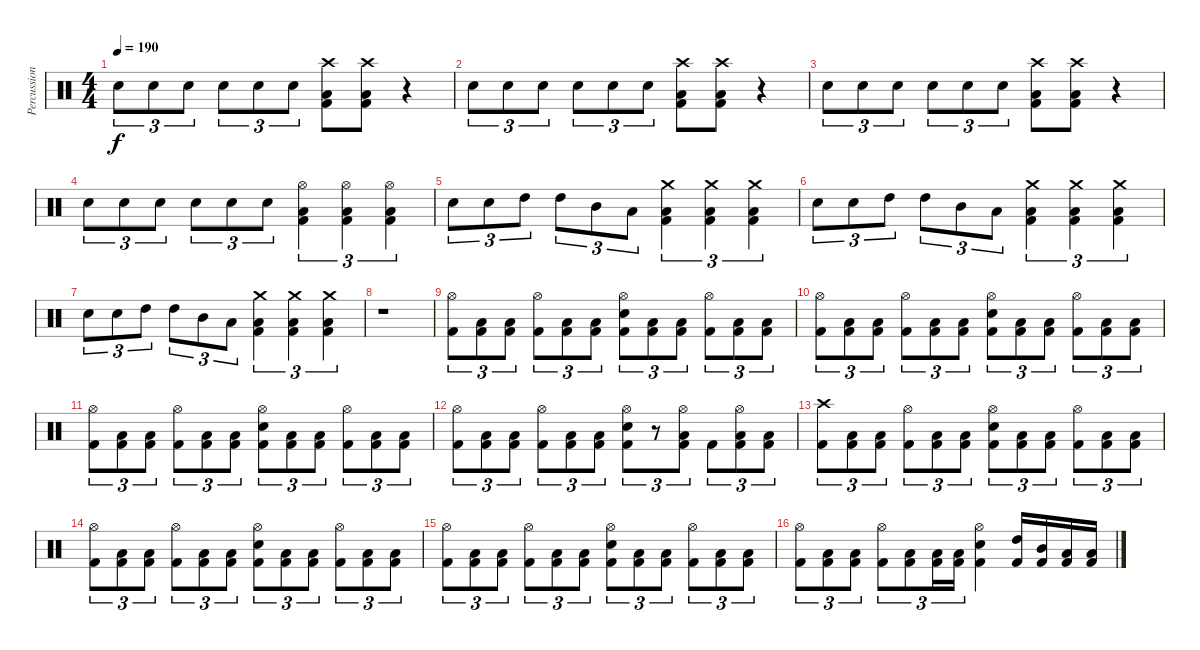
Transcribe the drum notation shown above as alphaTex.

\track ("Percussions" "Percussion") {instrument percussion}
\staff {score}
\articulation defaults
\ts (4 4)
\tempo 190
\clef neutral
\ks c "Snare (hit) 2".8{tu (3 2) dy f} "Snare (hit) 2".8{tu (3 2)} "Snare (hit) 2".8{tu (3 2)} "Snare (hit) 2".8{tu (3 2)} "Snare (hit) 2".8{tu (3 2)} "Snare (hit) 2".8{tu (3 2)}
("Crash high (hit)" "Low Floor Tom (hit)" "Kick (hit) 2").8 ("Crash high (hit)" "Low Floor Tom (hit)" "Kick (hit) 2").8 r.4 |
"Snare (hit) 2".8{tu (3 2)} "Snare (hit) 2".8{tu (3 2)} "Snare (hit) 2".8{tu (3 2)} "Snare (hit) 2".8{tu (3 2)} "Snare (hit) 2".8{tu (3 2)} "Snare (hit) 2".8{tu (3 2)} ("Crash high (hit)" "Low Floor Tom (hit)" "Kick (hit) 2").8 ("Crash high (hit)" "Low Floor Tom (hit)" "Kick (hit) 2").8 r.4 |
"Snare (hit) 2".8{tu (3 2)} "Snare (hit) 2".8{tu (3 2)} "Snare (hit) 2".8{tu (3 2)} "Snare (hit) 2".8{tu (3 2)} "Snare (hit) 2".8{tu (3 2)} "Snare (hit) 2".8{tu (3 2)} ("Crash high (hit)" "Low Floor Tom (hit)" "Kick (hit) 2").8 ("Crash high (hit)" "Low Floor Tom (hit)" "Kick (hit) 2").8 r.4 |
"Snare (hit) 2".8{tu (3 2)} "Snare (hit) 2".8{tu (3 2)} "Snare (hit) 2".8{tu (3 2)} "Snare (hit) 2".8{tu (3 2)} "Snare (hit) 2".8{tu (3 2)} "Snare (hit) 2".8{tu (3 2)} ("Hi-Hat (open)" "Low Floor Tom (hit)" "Kick (hit) 2").4{tu (3 2)} ("Hi-Hat (open)" "Low Floor Tom (hit)" "Kick (hit) 2").4{tu (3 2)} ("Hi-Hat (open)" "Low Floor Tom (hit)" "Kick (hit) 2").4{tu (3 2)} |
"Snare (hit) 2".8{tu (3 2)} "Snare (hit) 2".8{tu (3 2)} "High Tom (hit)".8{tu (3 2)} "High Tom (hit)".8{tu (3 2)} "Mid Tom (hit)".8{tu (3 2)} "Low Tom (hit)".8{tu (3 2)} ("Crash medium (hit)" "Low Floor Tom (hit)" "Kick (hit) 2").4{tu (3 2)} ("Crash medium (hit)" "Low Floor Tom (hit)" "Kick (hit) 2").4{tu (3 2)} ("Crash medium (hit)" "Low Floor Tom (hit)" "Kick (hit) 2").4{tu (3 2)} |
"Snare (hit) 2".8{tu (3 2)} "Snare (hit) 2".8{tu (3 2)} "High Tom (hit)".8{tu (3 2)} "High Tom (hit)".8{tu (3 2)} "Mid Tom (hit)".8{tu (3 2)} "Low Tom (hit)".8{tu (3 2)} ("Crash medium (hit)" "Low Floor Tom (hit)" "Kick (hit) 2").4{tu (3 2)} ("Crash medium (hit)" "Low Floor Tom (hit)" "Kick (hit) 2").4{tu (3 2)} ("Crash medium (hit)" "Low Floor Tom (hit)" "Kick (hit) 2").4{tu (3 2)} |
"Snare (hit) 2".8{tu (3 2)} "Snare (hit) 2".8{tu (3 2)} "High Tom (hit)".8{tu (3 2)} "High Tom (hit)".8{tu (3 2)} "Mid Tom (hit)".8{tu (3 2)} "Low Tom (hit)".8{tu (3 2)} ("Crash medium (hit)" "Low Floor Tom (hit)" "Kick (hit) 2").4{tu (3 2)} ("Crash medium (hit)" "Low Floor Tom (hit)" "Kick (hit) 2").4{tu (3 2)} ("Crash medium (hit)" "Low Floor Tom (hit)" "Kick (hit) 2").4{tu (3 2)} |
r.1 |
("Hi-Hat (open)" "Kick (hit) 2").8{tu (3 2)} ("Low Floor Tom (hit)" "Kick (hit) 2").8{tu (3 2)} ("Low Floor Tom (hit)" "Kick (hit) 2").8{tu (3 2)} ("Hi-Hat (open)" "Kick (hit) 2").8{tu (3 2)} ("Low Floor Tom (hit)" "Kick (hit) 2").8{tu (3 2)} ("Low Floor Tom (hit)" "Kick (hit) 2").8{tu (3 2)} ("Hi-Hat (open)" "Snare (hit) 2" "Kick (hit) 2").8{tu (3 2)} ("Low Floor Tom (hit)" "Kick (hit) 2").8{tu (3 2)} ("Low Floor Tom (hit)" "Kick (hit) 2").8{tu (3 2)} ("Hi-Hat (open)" "Kick (hit) 2").8{tu (3 2)} ("Low Floor Tom (hit)" "Kick (hit) 2").8{tu (3 2)} ("Low Floor Tom (hit)" "Kick (hit) 2").8{tu (3 2)} |
("Hi-Hat (open)" "Kick (hit) 2").8{tu (3 2)} ("Low Floor Tom (hit)" "Kick (hit) 2").8{tu (3 2)} ("Low Floor Tom (hit)" "Kick (hit) 2").8{tu (3 2)} ("Hi-Hat (open)" "Kick (hit) 2").8{tu (3 2)} ("Low Floor Tom (hit)" "Kick (hit) 2").8{tu (3 2)} ("Low Floor Tom (hit)" "Kick (hit) 2").8{tu (3 2)} ("Hi-Hat (open)" "Snare (hit) 2" "Kick (hit) 2").8{tu (3 2)} ("Low Floor Tom (hit)" "Kick (hit) 2").8{tu (3 2)} ("Low Floor Tom (hit)" "Kick (hit) 2").8{tu (3 2)} ("Hi-Hat (open)" "Kick (hit) 2").8{tu (3 2)} ("Low Floor Tom (hit)" "Kick (hit) 2").8{tu (3 2)} ("Low Floor Tom (hit)" "Kick (hit) 2").8{tu (3 2)} |
("Hi-Hat (open)" "Kick (hit) 2").8{tu (3 2)} ("Low Floor Tom (hit)" "Kick (hit) 2").8{tu (3 2)} ("Low Floor Tom (hit)" "Kick (hit) 2").8{tu (3 2)} ("Hi-Hat (open)" "Kick (hit) 2").8{tu (3 2)} ("Low Floor Tom (hit)" "Kick (hit) 2").8{tu (3 2)} ("Low Floor Tom (hit)" "Kick (hit) 2").8{tu (3 2)} ("Hi-Hat (open)" "Snare (hit) 2" "Kick (hit) 2").8{tu (3 2)} ("Low Floor Tom (hit)" "Kick (hit) 2").8{tu (3 2)} ("Low Floor Tom (hit)" "Kick (hit) 2").8{tu (3 2)} ("Hi-Hat (open)" "Kick (hit) 2").8{tu (3 2)} ("Low Floor Tom (hit)" "Kick (hit) 2").8{tu (3 2)} ("Low Floor Tom (hit)" "Kick (hit) 2").8{tu (3 2)} |
("Hi-Hat (open)" "Kick (hit) 2").8{tu (3 2)} ("Low Floor Tom (hit)" "Kick (hit) 2").8{tu (3 2)} ("Low Floor Tom (hit)" "Kick (hit) 2").8{tu (3 2)} ("Hi-Hat (open)" "Kick (hit) 2").8{tu (3 2)} ("Low Floor Tom (hit)" "Kick (hit) 2").8{tu (3 2)} ("Low Floor Tom (hit)" "Kick (hit) 2").8{tu (3 2)} ("Hi-Hat (open)" "Snare (hit) 2" "Kick (hit) 2").8{tu (3 2)} r.8{tu (3 2)} ("Hi-Hat (open)" "Low Floor Tom (hit)" "Kick (hit) 2").8{tu (3 2)} "Kick (hit) 2".8{tu (3 2)} ("Hi-Hat (open)" "Low Floor Tom (hit)" "Kick (hit) 2").8{tu (3 2)} ("Low Floor Tom (hit)" "Kick (hit) 2").8{tu (3 2)} |
("Crash high (hit)" "Kick (hit) 2").8{tu (3 2)} ("Low Floor Tom (hit)" "Kick (hit) 2").8{tu (3 2)} ("Low Floor Tom (hit)" "Kick (hit) 2").8{tu (3 2)} ("Hi-Hat (open)" "Kick (hit) 2").8{tu (3 2)} ("Low Floor Tom (hit)" "Kick (hit) 2").8{tu (3 2)} ("Low Floor Tom (hit)" "Kick (hit) 2").8{tu (3 2)} ("Hi-Hat (open)" "Snare (hit) 2" "Kick (hit) 2").8{tu (3 2)} ("Low Floor Tom (hit)" "Kick (hit) 2").8{tu (3 2)} ("Low Floor Tom (hit)" "Kick (hit) 2").8{tu (3 2)} ("Hi-Hat (open)" "Kick (hit) 2").8{tu (3 2)} ("Low Floor Tom (hit)" "Kick (hit) 2").8{tu (3 2)} ("Low Floor Tom (hit)" "Kick (hit) 2").8{tu (3 2)} |
("Hi-Hat (open)" "Kick (hit) 2").8{tu (3 2)} ("Low Floor Tom (hit)" "Kick (hit) 2").8{tu (3 2)} ("Low Floor Tom (hit)" "Kick (hit) 2").8{tu (3 2)} ("Hi-Hat (open)" "Kick (hit) 2").8{tu (3 2)} ("Low Floor Tom (hit)" "Kick (hit) 2").8{tu (3 2)} ("Low Floor Tom (hit)" "Kick (hit) 2").8{tu (3 2)} ("Hi-Hat (open)" "Snare (hit) 2" "Kick (hit) 2").8{tu (3 2)} ("Low Floor Tom (hit)" "Kick (hit) 2").8{tu (3 2)} ("Low Floor Tom (hit)" "Kick (hit) 2").8{tu (3 2)} ("Hi-Hat (open)" "Kick (hit) 2").8{tu (3 2)} ("Low Floor Tom (hit)" "Kick (hit) 2").8{tu (3 2)} ("Low Floor Tom (hit)" "Kick (hit) 2").8{tu (3 2)} |
("Hi-Hat (open)" "Kick (hit) 2").8{tu (3 2)} ("Low Floor Tom (hit)" "Kick (hit) 2").8{tu (3 2)} ("Low Floor Tom (hit)" "Kick (hit) 2").8{tu (3 2)} ("Hi-Hat (open)" "Kick (hit) 2").8{tu (3 2)} ("Low Floor Tom (hit)" "Kick (hit) 2").8{tu (3 2)} ("Low Floor Tom (hit)" "Kick (hit) 2").8{tu (3 2)} ("Hi-Hat (open)" "Snare (hit) 2" "Kick (hit) 2").8{tu (3 2)} ("Low Floor Tom (hit)" "Kick (hit) 2").8{tu (3 2)} ("Low Floor Tom (hit)" "Kick (hit) 2").8{tu (3 2)} ("Hi-Hat (open)" "Kick (hit) 2").8{tu (3 2)} ("Low Floor Tom (hit)" "Kick (hit) 2").8{tu (3 2)} ("Low Floor Tom (hit)" "Kick (hit) 2").8{tu (3 2)} |
("Hi-Hat (open)" "Kick (hit) 2").8{tu (3 2)} ("Low Floor Tom (hit)" "Kick (hit) 2").8{tu (3 2)} ("Low Floor Tom (hit)" "Kick (hit) 2").8{tu (3 2)} ("Hi-Hat (open)" "Kick (hit) 2").8{tu (3 2)} ("Low Floor Tom (hit)" "Kick (hit) 2").8{tu (3 2)} ("Low Floor Tom (hit)" "Kick (hit) 2").16{tu (3 2)} ("Low Floor Tom (hit)" "Kick (hit) 2").16{tu (3 2)} ("Hi-Hat (open)" "Snare (hit) 2" "Kick (hit) 2").4 ("High Tom (hit)" "Kick (hit) 2").16 ("Mid Tom (hit)" "Kick (hit) 2").16 ("Low Tom (hit)" "Kick (hit) 2").16 ("Low Floor Tom (hit)" "Kick (hit) 2").16
